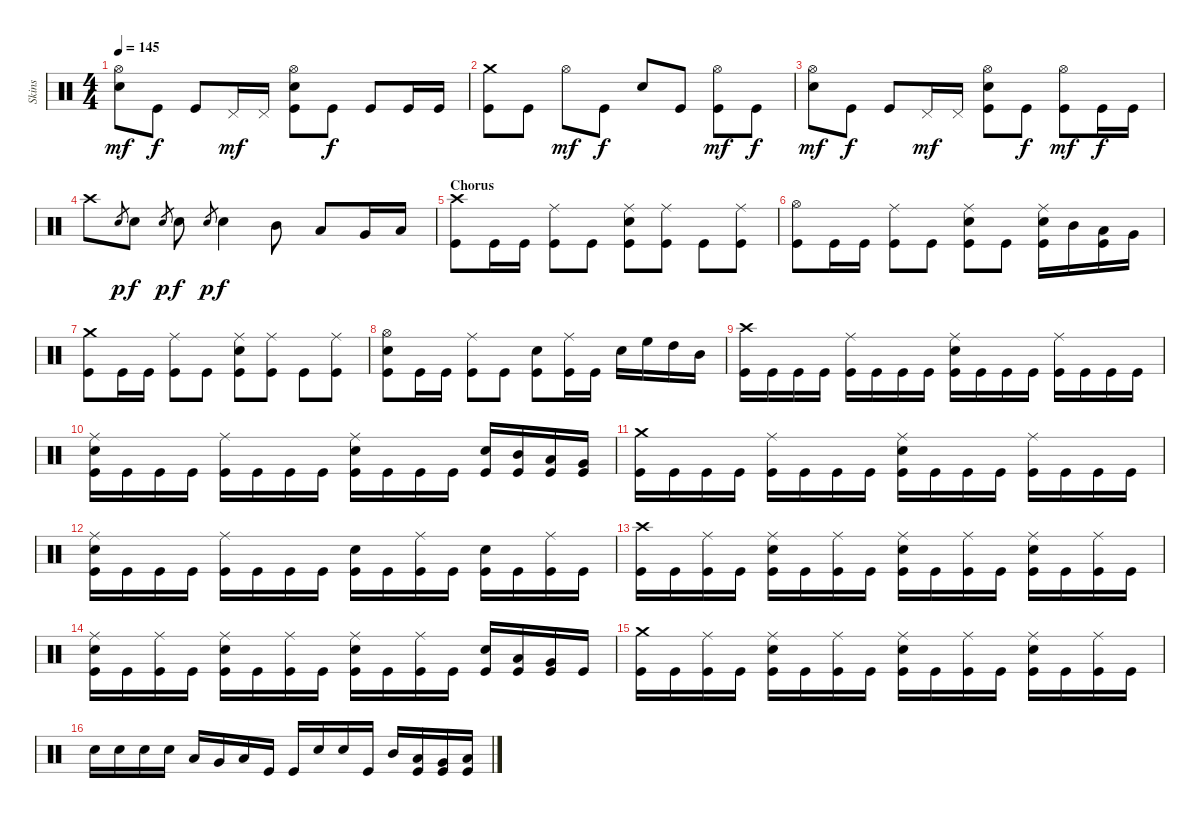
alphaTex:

\track ("Skins" "Skins") {instrument percussion}
\staff {score}
\articulation defaults
\ts (4 4)
\tempo 145
\clef neutral
\ks c
("Hi-Hat (open)" "Electric Snare (hit)").8{dy mf} "Kick (hit)".8{dy f} "Kick (hit)".8 "Pedal Hi-Hat (hit)".16{dy mf} "Pedal Hi-Hat (hit)".16 ("Hi-Hat (open)" "Electric Snare (hit)" "Kick (hit)").8 "Kick (hit)".8{dy f} "Kick (hit)".8 "Kick (hit)".16 "Kick (hit)".16 |
("Crash medium (hit)" "Kick (hit)").8 "Kick (hit)".8 "Hi-Hat (open)".8{dy mf} "Kick (hit)".8{dy f} "Electric Snare (hit)".8 "Kick (hit)".8 ("Hi-Hat (open)" "Kick (hit)").8{dy mf} "Kick (hit)".8{dy f} |
("Hi-Hat (open)" "Electric Snare (hit)").8{dy mf} "Kick (hit)".8{dy f} "Kick (hit)".8 "Pedal Hi-Hat (hit)".16{dy mf} "Pedal Hi-Hat (hit)".16 ("Hi-Hat (open)" "Electric Snare (hit)" "Kick (hit)").8 "Kick (hit)".8{dy f} ("Hi-Hat (open)" "Kick (hit)").8{dy mf} "Kick (hit)".16{dy f} "Kick (hit)".16 |
"Crash high (hit)".8 "Snare (hit) 2".8{gr dy p} "Snare (hit) 2".8{dy f} "Snare (hit) 2".8{gr dy p} "Snare (hit) 2".8{dy f} "Snare (hit) 2".8{gr dy p} "Snare (hit) 2".4{dy f} "Mid Tom (hit)".8 "Low Tom (hit)".8 "Very Low Tom (hit)".16 "Low Floor Tom (hit)".16 |
\section ("" "Chorus")
("Crash high (hit)" "Kick (hit)").8 "Kick (hit)".16 "Kick (hit)".16 ("Ride (middle)" "Kick (hit)").8 "Kick (hit)".8 ("Ride (middle)" "Electric Snare (hit)" "Kick (hit)").8 ("Ride (middle)" "Kick (hit)").8 "Kick (hit)".8 ("Ride (middle)" "Kick (hit)").8 |
("Hi-Hat (open)" "Kick (hit)").8 "Kick (hit)".16 "Kick (hit)".16 ("Ride (middle)" "Kick (hit)").8 "Kick (hit)".8 ("Ride (middle)" "Electric Snare (hit)" "Kick (hit)").8 "Kick (hit)".8 ("Ride (middle)" "Electric Snare (hit)" "Kick (hit)").16 "Mid Tom (hit)".16 ("Low Tom (hit)" "Kick (hit)").16 "Very Low Tom (hit)".16 |
("Crash medium (hit)" "Kick (hit)").8 "Kick (hit)".16 "Kick (hit)".16 ("Ride (middle)" "Kick (hit)").8 "Kick (hit)".8 ("Ride (middle)" "Electric Snare (hit)" "Kick (hit)").8 ("Ride (middle)" "Kick (hit)").8 "Kick (hit)".8 ("Ride (middle)" "Kick (hit)").8 |
("Hi-Hat (open)" "Electric Snare (hit)" "Kick (hit)").8 "Kick (hit)".16 "Kick (hit)".16 ("Ride (middle)" "Kick (hit)").8 "Kick (hit)".8 ("Electric Snare (hit)" "Kick (hit)").8 ("Ride (middle)" "Kick (hit)").16 "Kick (hit)".16 "Electric Snare (hit)".16 "High Floor Tom (hit)".16 "High Tom (hit)".16 "Mid Tom (hit)".16 |
("Crash high (hit)" "Kick (hit)").16 "Kick (hit)".16 "Kick (hit)".16 "Kick (hit)".16 ("Ride (middle)" "Kick (hit)").16 "Kick (hit)".16 "Kick (hit)".16 "Kick (hit)".16 ("Ride (middle)" "Electric Snare (hit)" "Kick (hit)").16 "Kick (hit)".16 "Kick (hit)".16 "Kick (hit)".16 ("Ride (middle)" "Kick (hit)").16 "Kick (hit)".16 "Kick (hit)".16 "Kick (hit)".16 |
("Ride (middle)" "Electric Snare (hit)" "Kick (hit)").16 "Kick (hit)".16 "Kick (hit)".16 "Kick (hit)".16 ("Ride (middle)" "Kick (hit)").16 "Kick (hit)".16 "Kick (hit)".16 "Kick (hit)".16 ("Ride (middle)" "Electric Snare (hit)" "Kick (hit)").16 "Kick (hit)".16 "Kick (hit)".16 "Kick (hit)".16 ("Electric Snare (hit)" "Kick (hit)").16 ("Mid Tom (hit)" "Kick (hit)").16 ("Low Tom (hit)" "Kick (hit)").16 ("Very Low Tom (hit)" "Kick (hit)").16 |
("Crash medium (hit)" "Kick (hit)").16 "Kick (hit)".16 "Kick (hit)".16 "Kick (hit)".16 ("Ride (middle)" "Kick (hit)").16 "Kick (hit)".16 "Kick (hit)".16 "Kick (hit)".16 ("Ride (middle)" "Electric Snare (hit)" "Kick (hit)").16 "Kick (hit)".16 "Kick (hit)".16 "Kick (hit)".16 ("Ride (middle)" "Kick (hit)").16 "Kick (hit)".16 "Kick (hit)".16 "Kick (hit)".16 |
("Ride (middle)" "Electric Snare (hit)" "Kick (hit)").16 "Kick (hit)".16 "Kick (hit)".16 "Kick (hit)".16 ("Ride (middle)" "Kick (hit)").16 "Kick (hit)".16 "Kick (hit)".16 "Kick (hit)".16 ("Electric Snare (hit)" "Kick (hit)").16 "Kick (hit)".16 ("Ride (middle)" "Kick (hit)").16 "Kick (hit)".16 ("Electric Snare (hit)" "Kick (hit)").16 "Kick (hit)".16 ("Ride (middle)" "Kick (hit)").16 "Kick (hit)".16 |
("Crash high (hit)" "Kick (hit)").16 "Kick (hit)".16 ("Ride (middle)" "Kick (hit)").16 "Kick (hit)".16 ("Ride (middle)" "Electric Snare (hit)" "Kick (hit)").16 "Kick (hit)".16 ("Ride (middle)" "Kick (hit)").16 "Kick (hit)".16 ("Ride (middle)" "Electric Snare (hit)" "Kick (hit)").16 "Kick (hit)".16 ("Ride (middle)" "Kick (hit)").16 "Kick (hit)".16 ("Ride (middle)" "Electric Snare (hit)" "Kick (hit)").16 "Kick (hit)".16 ("Ride (middle)" "Kick (hit)").16 "Kick (hit)".16 |
("Ride (middle)" "Electric Snare (hit)" "Kick (hit)").16 "Kick (hit)".16 ("Ride (middle)" "Kick (hit)").16 "Kick (hit)".16 ("Ride (middle)" "Electric Snare (hit)" "Kick (hit)").16 "Kick (hit)".16 ("Ride (middle)" "Kick (hit)").16 "Kick (hit)".16 ("Ride (middle)" "Electric Snare (hit)" "Kick (hit)").16 "Kick (hit)".16 ("Ride (middle)" "Kick (hit)").16 "Kick (hit)".16 ("Electric Snare (hit)" "Kick (hit)").16 ("Low Tom (hit)" "Kick (hit)").16 ("Very Low Tom (hit)" "Kick (hit)").16 "Kick (hit)".16 |
("Crash medium (hit)" "Kick (hit)").16 "Kick (hit)".16 ("Ride (middle)" "Kick (hit)").16 "Kick (hit)".16 ("Ride (middle)" "Electric Snare (hit)" "Kick (hit)").16 "Kick (hit)".16 ("Ride (middle)" "Kick (hit)").16 "Kick (hit)".16 ("Ride (middle)" "Electric Snare (hit)" "Kick (hit)").16 "Kick (hit)".16 ("Ride (middle)" "Kick (hit)").16 "Kick (hit)".16 ("Ride (middle)" "Electric Snare (hit)" "Kick (hit)").16 "Kick (hit)".16 ("Ride (middle)" "Kick (hit)").16 "Kick (hit)".16 |
"Electric Snare (hit)".16 "Electric Snare (hit)".16 "Snare (hit) 2".16 "Snare (hit) 2".16 "Low Tom (hit)".16 "Very Low Tom (hit)".16 "Low Floor Tom (hit)".16 "Kick (hit)".16 "Kick (hit)".16 "Snare (hit) 2".16 "Snare (hit) 2".16 "Kick (hit)".16 "Mid Tom (hit)".16 ("Low Tom (hit)" "Kick (hit)").16 ("Very Low Tom (hit)" "Kick (hit)").16 ("Low Floor Tom (hit)" "Kick (hit)").16
